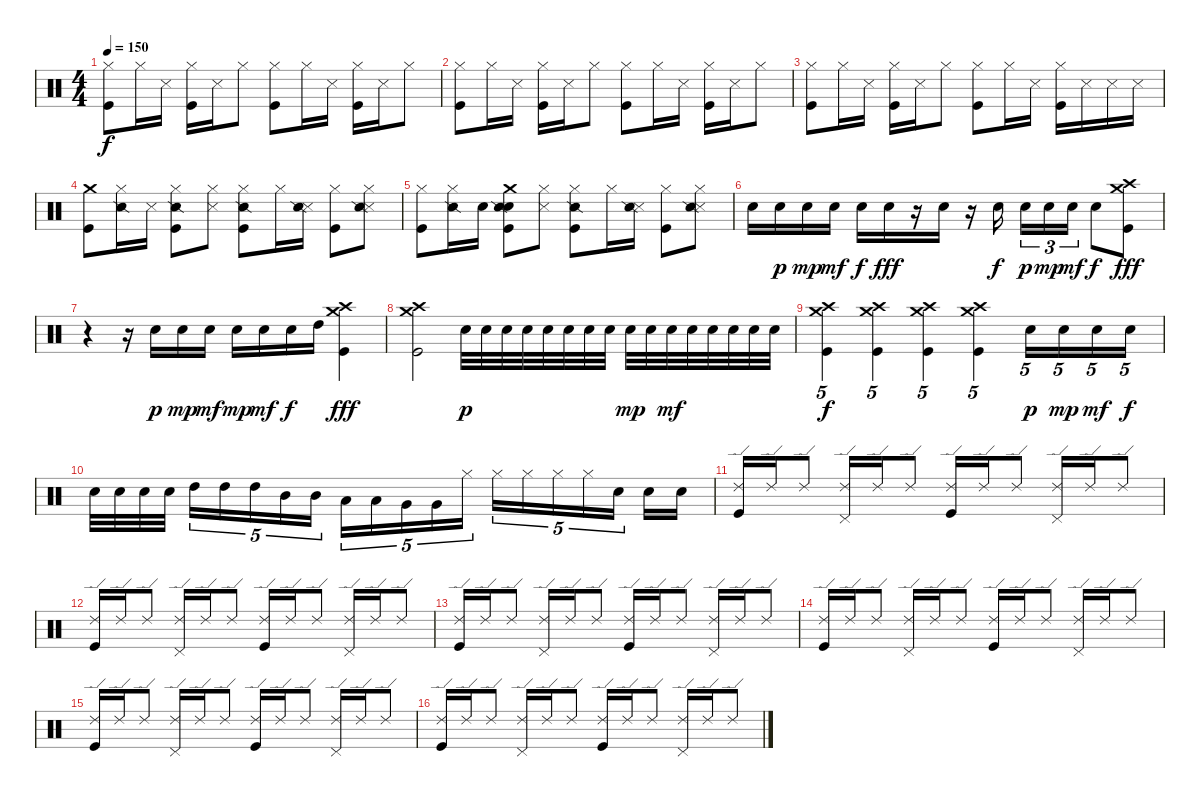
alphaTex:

\track "" {instrument percussion}
\staff {score}
\articulation defaults
\ts (4 4)
\tempo 150
\clef neutral
\ks c
("Hi-Hat (closed)" "Kick (hit)").8{dy f} "Hi-Hat (closed)".16 "Snare (side stick) 3".16 ("Hi-Hat (closed)" "Kick (hit)").16 "Snare (side stick) 3".16 "Hi-Hat (closed)".8 ("Hi-Hat (closed)" "Kick (hit)").8 "Hi-Hat (closed)".16 "Snare (side stick) 3".16 ("Hi-Hat (closed)" "Kick (hit)").16 "Snare (side stick) 3".16 "Hi-Hat (closed)".8 |
("Hi-Hat (closed)" "Kick (hit)").8 "Hi-Hat (closed)".16 "Snare (side stick) 3".16 ("Hi-Hat (closed)" "Kick (hit)").16 "Snare (side stick) 3".16 "Hi-Hat (closed)".8 ("Hi-Hat (closed)" "Kick (hit)").8 "Hi-Hat (closed)".16 "Snare (side stick) 3".16 ("Hi-Hat (closed)" "Kick (hit)").16 "Snare (side stick) 3".16 "Hi-Hat (closed)".8 |
("Hi-Hat (closed)" "Kick (hit)").8 "Hi-Hat (closed)".16 "Snare (side stick) 3".16 ("Hi-Hat (closed)" "Kick (hit)").16 "Snare (side stick) 3".16 "Hi-Hat (closed)".8 ("Hi-Hat (closed)" "Kick (hit)").8 "Hi-Hat (closed)".16 "Snare (side stick) 3".16 ("Hi-Hat (closed)" "Kick (hit)").16 "Snare (side stick) 3".16 "Snare (side stick) 3".16 "Snare (side stick) 3".16 |
("Crash medium (hit)" "Kick (hit)").8 ("Hi-Hat (closed)" "Snare (side stick) 2").16 "Snare (side stick) 3".16 ("Hi-Hat (closed)" "Snare (side stick) 2" "Kick (hit)").8 ("Hi-Hat (closed)" "Snare (side stick) 3").8 ("Hi-Hat (closed)" "Snare (side stick) 2" "Kick (hit)").8 "Hi-Hat (closed)".16 ("Snare (side stick) 3" "Snare (side stick) 2").16 ("Hi-Hat (closed)" "Kick (hit)").8 ("Hi-Hat (closed)" "Snare (side stick) 3" "Snare (side stick) 2").8 |
("Hi-Hat (closed)" "Kick (hit)").8 ("Hi-Hat (closed)" "Snare (side stick) 2").16 "Electric Snare (hit)".16 ("Crash medium (hit)" "Electric Snare (hit)" "Snare (side stick) 2" "Kick (hit)").8 ("Hi-Hat (closed)" "Snare (side stick) 3").8 ("Hi-Hat (closed)" "Snare (side stick) 2" "Kick (hit)").8 "Hi-Hat (closed)".16 ("Snare (side stick) 3" "Snare (side stick) 2").16 ("Hi-Hat (closed)" "Kick (hit)").8 ("Hi-Hat (closed)" "Snare (side stick) 3" "Snare (side stick) 2").8 |
"Electric Snare (hit)".16 "Electric Snare (hit)".16{dy p} "Electric Snare (hit)".16{dy mp} "Electric Snare (hit)".16{dy mf} "Electric Snare (hit)".16{dy f} "Electric Snare (hit)".16{dy fff} r.16 "Electric Snare (hit)".16 r.16 "Electric Snare (hit)".16{dy f} "Electric Snare (hit)".16{tu (3 2) dy p} "Electric Snare (hit)".16{tu (3 2) dy mp} "Electric Snare (hit)".16{tu (3 2) dy mf} "Electric Snare (hit)".8{dy f} ("Crash high (hit)" "Crash medium (hit)" "Kick (hit)").8{dy fff} |
r.4 r.16 "Electric Snare (hit)".16{dy p} "Electric Snare (hit)".16{dy mp} "Electric Snare (hit)".16{dy mf} "Electric Snare (hit)".16{dy mp} "Electric Snare (hit)".16{dy mf} "Electric Snare (hit)".16{dy f} "High Tom (hit)".16 ("Crash high (hit)" "Crash medium (hit)" "Kick (hit)").4{dy fff} |
("Crash high (hit)" "Crash medium (hit)" "Kick (hit)").2 "Electric Snare (hit)".32{dy p} "Electric Snare (hit)".32 "Electric Snare (hit)".32 "Electric Snare (hit)".32 "Electric Snare (hit)".32 "Electric Snare (hit)".32 "Electric Snare (hit)".32 "Electric Snare (hit)".32 "Electric Snare (hit)".32{dy mp} "Electric Snare (hit)".32 "Electric Snare (hit)".32{dy mf} "Electric Snare (hit)".32 "Electric Snare (hit)".32 "Electric Snare (hit)".32 "Electric Snare (hit)".32 "Electric Snare (hit)".32 |
("Crash high (hit)" "Crash medium (hit)" "Kick (hit)").4{tu (5 4) dy f} ("Crash high (hit)" "Crash medium (hit)" "Kick (hit)").4{tu (5 4)} ("Crash high (hit)" "Crash medium (hit)" "Kick (hit)").4{tu (5 4)} ("Crash high (hit)" "Crash medium (hit)" "Kick (hit)").4{tu (5 4)} "Electric Snare (hit)".16{tu (5 4) dy p} "Electric Snare (hit)".16{tu (5 4) dy mp} "Electric Snare (hit)".16{tu (5 4) dy mf} "Electric Snare (hit)".16{tu (5 4) dy f} |
"Electric Snare (hit)".32 "Electric Snare (hit)".32 "Electric Snare (hit)".32 "Electric Snare (hit)".32 "High Tom (hit)".16{tu (5 4)} "High Tom (hit)".16{tu (5 4)} "High Tom (hit)".16{tu (5 4)} "Mid Tom (hit)".16{tu (5 4)} "Mid Tom (hit)".16{tu (5 4)} "Low Tom (hit)".16{tu (5 4)} "Low Tom (hit)".16{tu (5 4)} "Very Low Tom (hit)".16{tu (5 4)} "Very Low Tom (hit)".16{tu (5 4)} "Hi-Hat (closed)".16{tu (5 4)} "Hi-Hat (closed)".16{tu (5 4)} "Hi-Hat (closed)".16{tu (5 4)} "Hi-Hat (closed)".16{tu (5 4)} "Hi-Hat (closed)".16{tu (5 4)} "Electric Snare (hit)".16{tu (5 4)} "Electric Snare (hit)".16 "Electric Snare (hit)".16 |
("Ride (edge) 2" "Kick (hit)").16 "Ride (edge) 2".16 "Ride (edge) 2".8 ("Ride (edge) 2" "Pedal Hi-Hat (hit)").16 "Ride (edge) 2".16 "Ride (edge) 2".8 ("Ride (edge) 2" "Kick (hit)").16 "Ride (edge) 2".16 "Ride (edge) 2".8 ("Ride (edge) 2" "Pedal Hi-Hat (hit)").16 "Ride (edge) 2".16 "Ride (edge) 2".8 |
("Ride (edge) 2" "Kick (hit)").16 "Ride (edge) 2".16 "Ride (edge) 2".8 ("Ride (edge) 2" "Pedal Hi-Hat (hit)").16 "Ride (edge) 2".16 "Ride (edge) 2".8 ("Ride (edge) 2" "Kick (hit)").16 "Ride (edge) 2".16 "Ride (edge) 2".8 ("Ride (edge) 2" "Pedal Hi-Hat (hit)").16 "Ride (edge) 2".16 "Ride (edge) 2".8 |
("Ride (edge) 2" "Kick (hit)").16 "Ride (edge) 2".16 "Ride (edge) 2".8 ("Ride (edge) 2" "Pedal Hi-Hat (hit)").16 "Ride (edge) 2".16 "Ride (edge) 2".8 ("Ride (edge) 2" "Kick (hit)").16 "Ride (edge) 2".16 "Ride (edge) 2".8 ("Ride (edge) 2" "Pedal Hi-Hat (hit)").16 "Ride (edge) 2".16 "Ride (edge) 2".8 |
("Ride (edge) 2" "Kick (hit)").16 "Ride (edge) 2".16 "Ride (edge) 2".8 ("Ride (edge) 2" "Pedal Hi-Hat (hit)").16 "Ride (edge) 2".16 "Ride (edge) 2".8 ("Ride (edge) 2" "Kick (hit)").16 "Ride (edge) 2".16 "Ride (edge) 2".8 ("Ride (edge) 2" "Pedal Hi-Hat (hit)").16 "Ride (edge) 2".16 "Ride (edge) 2".8 |
("Ride (edge) 2" "Kick (hit)").16 "Ride (edge) 2".16 "Ride (edge) 2".8 ("Ride (edge) 2" "Pedal Hi-Hat (hit)").16 "Ride (edge) 2".16 "Ride (edge) 2".8 ("Ride (edge) 2" "Kick (hit)").16 "Ride (edge) 2".16 "Ride (edge) 2".8 ("Ride (edge) 2" "Pedal Hi-Hat (hit)").16 "Ride (edge) 2".16 "Ride (edge) 2".8 |
("Ride (edge) 2" "Kick (hit)").16 "Ride (edge) 2".16 "Ride (edge) 2".8 ("Ride (edge) 2" "Pedal Hi-Hat (hit)").16 "Ride (edge) 2".16 "Ride (edge) 2".8 ("Ride (edge) 2" "Kick (hit)").16 "Ride (edge) 2".16 "Ride (edge) 2".8 ("Ride (edge) 2" "Pedal Hi-Hat (hit)").16 "Ride (edge) 2".16 "Ride (edge) 2".8
